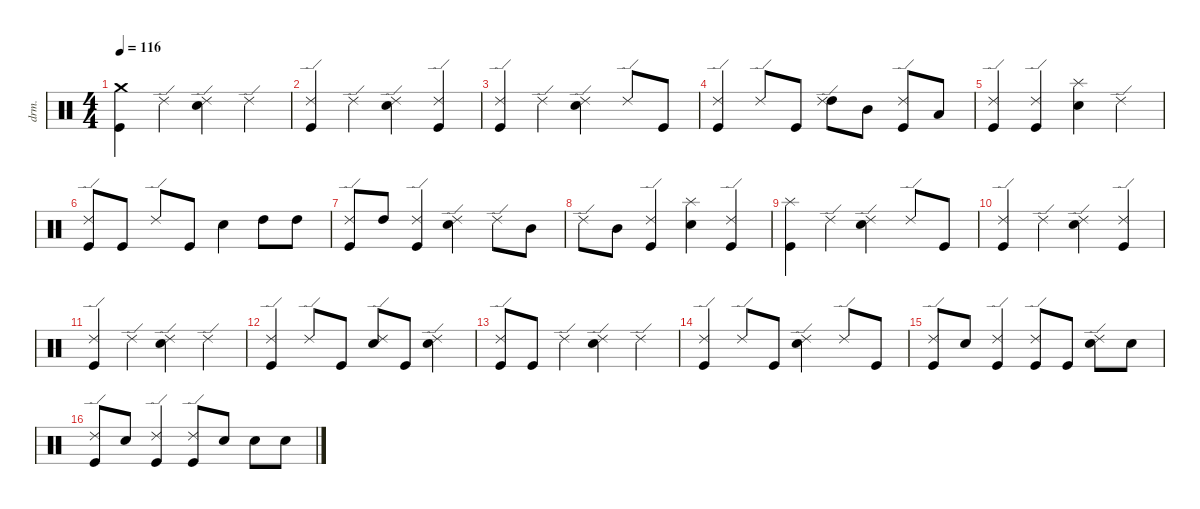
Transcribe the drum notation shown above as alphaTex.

\defaultSystemsLayout 4
\hideDynamics
\bracketExtendMode nobrackets
\otherSystemsTrackNameOrientation horizontal
\track ("Drum" "drm.") {instrument percussion}
\staff {score}
\articulation defaults
\ts (4 4)
\tempo 116
\clef neutral
\ks c
("Kick (hit)" "Crash medium (hit)").4{dy f beam Down} "Ride (edge) 2".4{beam Down} ("Snare (hit) 2" "Ride (edge) 2").4{beam Down} "Ride (edge) 2".4{beam Down} |
("Kick (hit)" "Ride (edge) 2").4{beam Up} "Ride (edge) 2".4{beam Down} ("Snare (hit) 2" "Ride (edge) 2").4{beam Down} ("Kick (hit)" "Ride (edge) 2").4{beam Up} |
("Kick (hit)" "Ride (edge) 2").4{beam Up} "Ride (edge) 2".4{beam Down} ("Snare (hit) 2" "Ride (edge) 2").4{beam Down} "Ride (edge) 2".8{beam Up} "Kick (hit)".8{beam Up} |
("Kick (hit)" "Ride (edge) 2").4{beam Up} "Ride (edge) 2".8{beam Up} "Kick (hit)".8{beam Up} ("High Tom (hit)" "Ride (edge) 2").8{beam Down} "Mid Tom (hit)".8{beam Down} ("Kick (hit)" "Ride (edge) 2").8{beam Up} "Low Tom (hit)".8{beam Up} |
("Kick (hit)" "Ride (edge) 2").4{beam Up} ("Kick (hit)" "Ride (edge) 2").4{beam Up} ("Snare (hit) 2" "Splash (hit)").4{beam Down} "Ride (edge) 2".4{beam Down} |
("Kick (hit)" "Ride (edge) 2").8{beam Up} "Kick (hit)".8{beam Up} "Ride (edge) 2".8{beam Up} "Kick (hit)".8{beam Up} "Snare (hit) 2".4{beam Down} "High Tom (hit)".8{beam Down} "High Tom (hit)".8{beam Down} |
("Kick (hit)" "Ride (edge) 2").8{beam Up} "High Tom (hit)".8{beam Up} ("Kick (hit)" "Ride (edge) 2").4{beam Up} ("Snare (hit) 2" "Ride (edge) 2").4{beam Down} "Ride (edge) 2".8{beam Down} "Mid Tom (hit)".8{beam Down} |
"Ride (edge) 2".8{beam Down} "Mid Tom (hit)".8{beam Down} ("Kick (hit)" "Ride (edge) 2").4{beam Up} ("Snare (hit) 2" "Splash (hit)").4{beam Down} ("Kick (hit)" "Ride (edge) 2").4{beam Up} |
("Kick (hit)" "Splash (hit)").4{beam Down} "Ride (edge) 2".4{beam Down} ("Snare (hit) 2" "Ride (edge) 2").4{beam Down} "Ride (edge) 2".8{beam Up} "Kick (hit)".8{beam Up} |
("Kick (hit)" "Ride (edge) 2").4{beam Up} "Ride (edge) 2".4{beam Down} ("Snare (hit) 2" "Ride (edge) 2").4{beam Down} ("Kick (hit)" "Ride (edge) 2").4{beam Up} |
("Kick (hit)" "Ride (edge) 2").4{beam Up} "Ride (edge) 2".4{beam Down} ("Snare (hit) 2" "Ride (edge) 2").4{beam Down} "Ride (edge) 2".4{beam Down} |
("Kick (hit)" "Ride (edge) 2").4{beam Up} "Ride (edge) 2".8{beam Up} "Kick (hit)".8{beam Up} ("Snare (hit) 2" "Ride (edge) 2").8{beam Up} "Kick (hit)".8{beam Up} ("Snare (hit) 2" "Ride (edge) 2").4{beam Down} |
("Kick (hit)" "Ride (edge) 2").8{beam Up} "Kick (hit)".8{beam Up} "Ride (edge) 2".4{beam Down} ("Snare (hit) 2" "Ride (edge) 2").4{beam Down} "Ride (edge) 2".4{beam Down} |
("Kick (hit)" "Ride (edge) 2").4{beam Up} "Ride (edge) 2".8{beam Up} "Kick (hit)".8{beam Up} ("Snare (hit) 2" "Ride (edge) 2").4{beam Down} "Ride (edge) 2".8{beam Up} "Kick (hit)".8{beam Up} |
("Kick (hit)" "Ride (edge) 2").8{beam Up} "Snare (hit) 2".8{beam Up} ("Kick (hit)" "Ride (edge) 2").4{beam Up} ("Kick (hit)" "Ride (edge) 2").8{beam Up} "Kick (hit)".8{beam Up} ("Snare (hit) 2" "Ride (edge) 2").8{beam Down} "Snare (hit) 2".8{beam Down} |
("Kick (hit)" "Ride (edge) 2").8{beam Up} "Snare (hit) 2".8{beam Up} ("Kick (hit)" "Ride (edge) 2").4{beam Up} ("Kick (hit)" "Ride (edge) 2").8{beam Up} "Snare (hit) 2".8{beam Up} "Snare (hit) 2".8{beam Down} "Snare (hit) 2".8{beam Down}
